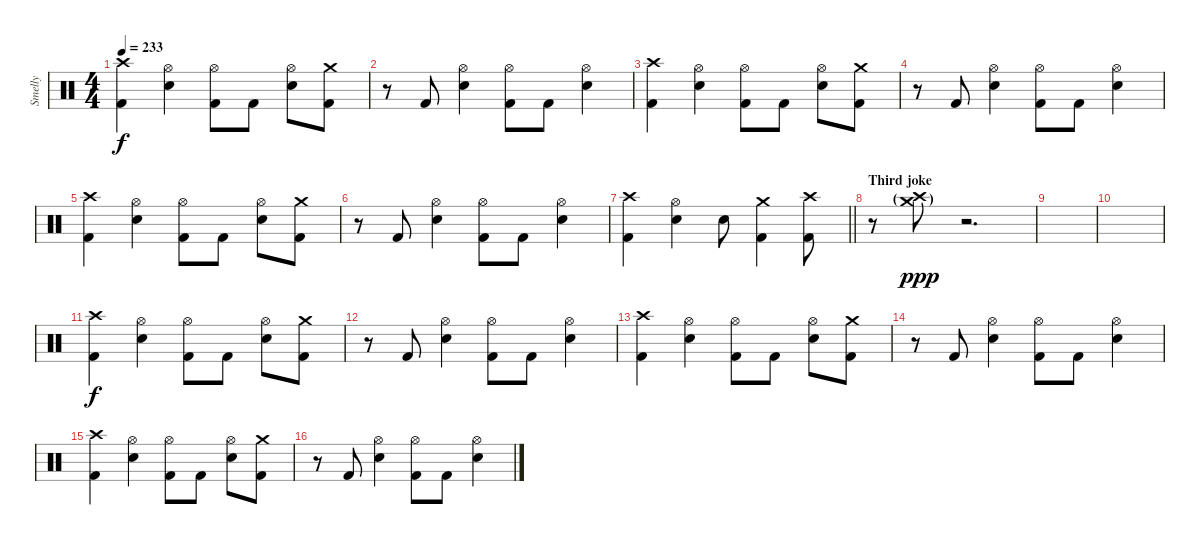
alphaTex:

\track ("Smelly" "Smelly") {instrument percussion}
\staff {score}
\articulation defaults
\ts (4 4)
\tempo 233
\clef neutral
\ks c
("Crash high (hit)" "Kick (hit) 2").4{dy f} ("Hi-Hat (open)" "Electric Snare (hit)").4 ("Hi-Hat (open)" "Kick (hit) 2").8 "Kick (hit) 2".8 ("Hi-Hat (open)" "Electric Snare (hit)").8 ("Crash medium (hit)" "Kick (hit) 2").8 |
r.8 "Kick (hit) 2".8 ("Hi-Hat (open)" "Electric Snare (hit)").4 ("Hi-Hat (open)" "Kick (hit) 2").8 "Kick (hit) 2".8 ("Hi-Hat (open)" "Electric Snare (hit)").4 |
("Crash high (hit)" "Kick (hit) 2").4 ("Hi-Hat (open)" "Electric Snare (hit)").4 ("Hi-Hat (open)" "Kick (hit) 2").8 "Kick (hit) 2".8 ("Hi-Hat (open)" "Electric Snare (hit)").8 ("Crash medium (hit)" "Kick (hit) 2").8 |
r.8 "Kick (hit) 2".8 ("Hi-Hat (open)" "Electric Snare (hit)").4 ("Hi-Hat (open)" "Kick (hit) 2").8 "Kick (hit) 2".8 ("Hi-Hat (open)" "Electric Snare (hit)").4 |
("Crash high (hit)" "Kick (hit) 2").4 ("Hi-Hat (open)" "Electric Snare (hit)").4 ("Hi-Hat (open)" "Kick (hit) 2").8 "Kick (hit) 2".8 ("Hi-Hat (open)" "Electric Snare (hit)").8 ("Crash medium (hit)" "Kick (hit) 2").8 |
r.8 "Kick (hit) 2".8 ("Hi-Hat (open)" "Electric Snare (hit)").4 ("Hi-Hat (open)" "Kick (hit) 2").8 "Kick (hit) 2".8 ("Hi-Hat (open)" "Electric Snare (hit)").4 |
\barLineRight lightlight
("Crash high (hit)" "Kick (hit) 2").4 ("Hi-Hat (open)" "Electric Snare (hit)").4 "Electric Snare (hit)".8 ("Crash medium (hit)" "Kick (hit) 2").4 ("Crash high (hit)" "Kick (hit) 2").8 |
\section ("" "Third joke")
r.8 ("Crash high (hit)"{g} "Crash medium (hit)"{g}).8{dy ppp} r.2{d} |
|
|
("Crash high (hit)" "Kick (hit) 2").4{dy f} ("Hi-Hat (open)" "Electric Snare (hit)").4 ("Hi-Hat (open)" "Kick (hit) 2").8 "Kick (hit) 2".8 ("Hi-Hat (open)" "Electric Snare (hit)").8 ("Crash medium (hit)" "Kick (hit) 2").8 |
r.8 "Kick (hit) 2".8 ("Hi-Hat (open)" "Electric Snare (hit)").4 ("Hi-Hat (open)" "Kick (hit) 2").8 "Kick (hit) 2".8 ("Hi-Hat (open)" "Electric Snare (hit)").4 |
("Crash high (hit)" "Kick (hit) 2").4 ("Hi-Hat (open)" "Electric Snare (hit)").4 ("Hi-Hat (open)" "Kick (hit) 2").8 "Kick (hit) 2".8 ("Hi-Hat (open)" "Electric Snare (hit)").8 ("Crash medium (hit)" "Kick (hit) 2").8 |
r.8 "Kick (hit) 2".8 ("Hi-Hat (open)" "Electric Snare (hit)").4 ("Hi-Hat (open)" "Kick (hit) 2").8 "Kick (hit) 2".8 ("Hi-Hat (open)" "Electric Snare (hit)").4 |
("Crash high (hit)" "Kick (hit) 2").4 ("Hi-Hat (open)" "Electric Snare (hit)").4 ("Hi-Hat (open)" "Kick (hit) 2").8 "Kick (hit) 2".8 ("Hi-Hat (open)" "Electric Snare (hit)").8 ("Crash medium (hit)" "Kick (hit) 2").8 |
r.8 "Kick (hit) 2".8 ("Hi-Hat (open)" "Electric Snare (hit)").4 ("Hi-Hat (open)" "Kick (hit) 2").8 "Kick (hit) 2".8 ("Hi-Hat (open)" "Electric Snare (hit)").4
